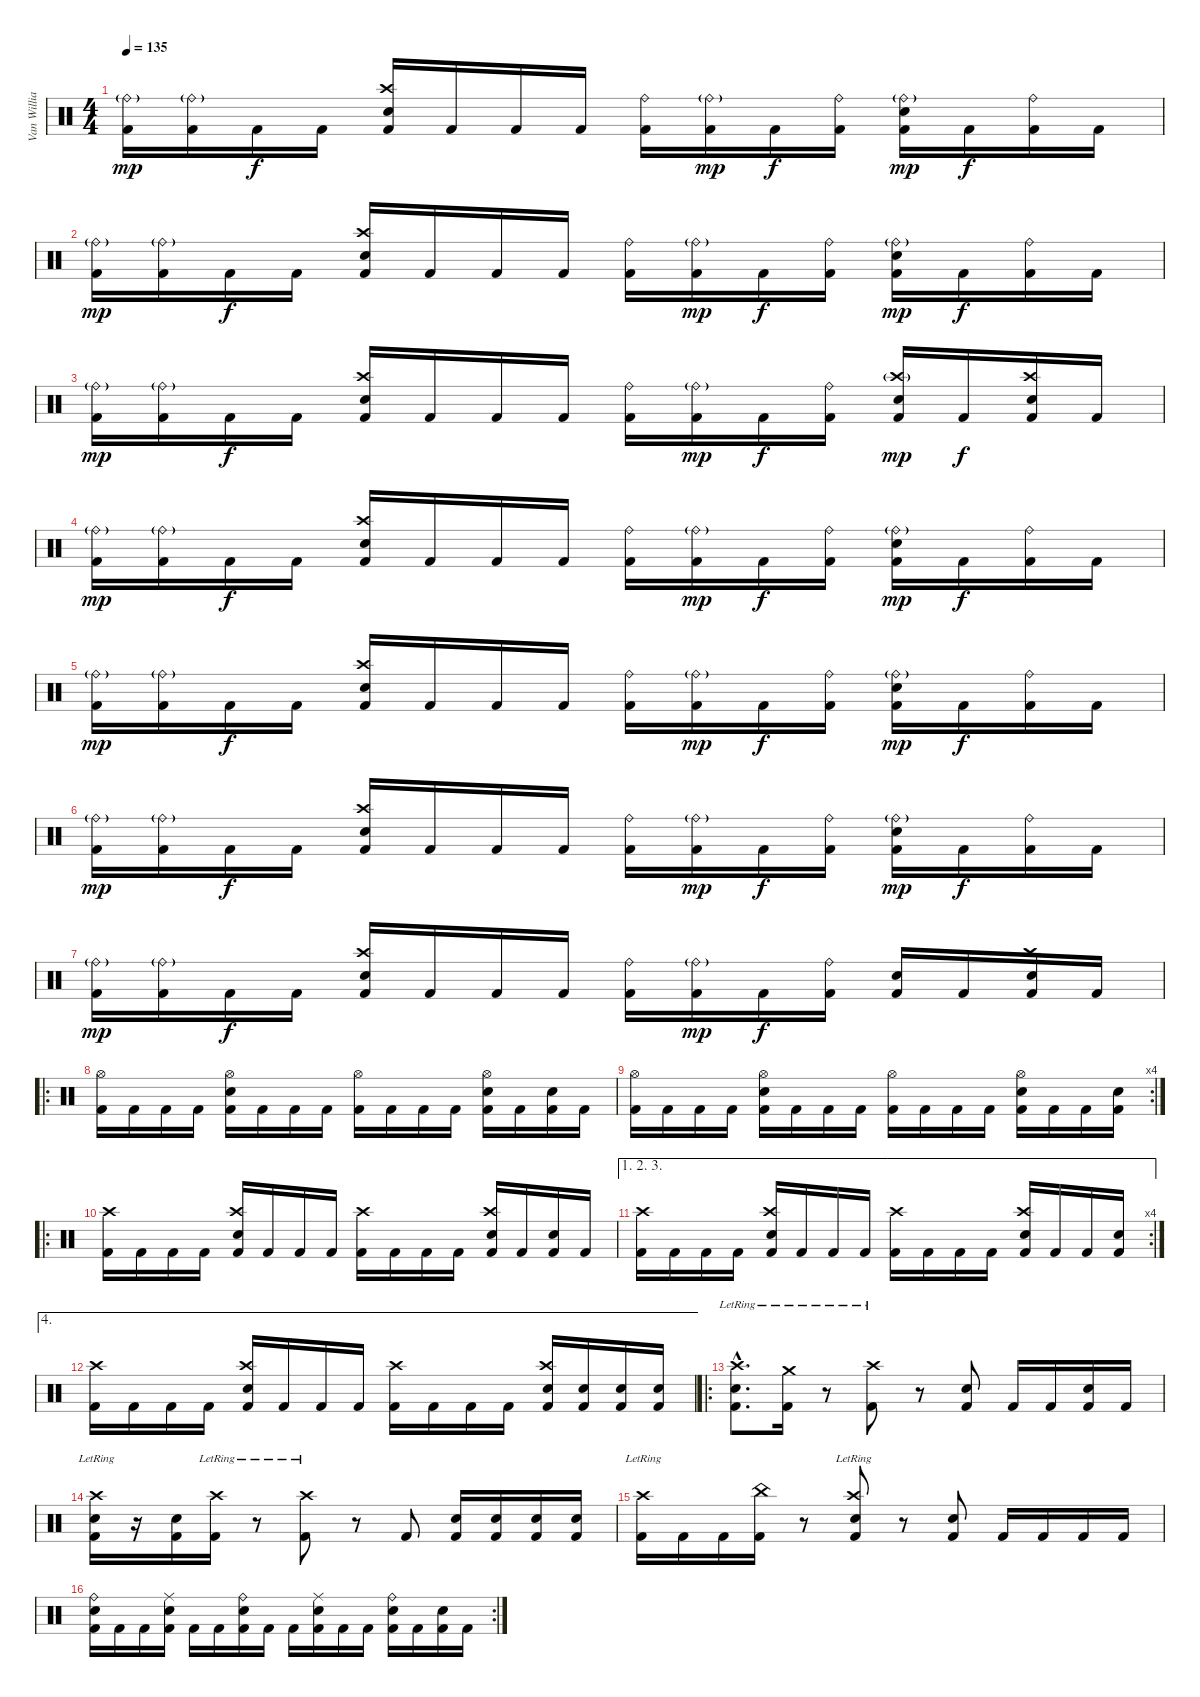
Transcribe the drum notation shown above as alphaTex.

\track ("Van Williams" "Van Willia") {instrument percussion}
\staff {score}
\articulation defaults
\ts (4 4)
\tempo 135
\clef neutral
\ks c
("Ride (bell)"{g} "Kick (hit) 2").16{dy mp} ("Ride (bell)"{g} "Kick (hit) 2").16 "Kick (hit) 2".16{dy f} "Kick (hit) 2".16 ("Crash high (hit)" "Kick (hit) 2" "Electric Snare (hit)").16 "Kick (hit) 2".16 "Kick (hit) 2".16 "Kick (hit) 2".16 ("Ride (bell)" "Kick (hit) 2").16 ("Ride (bell)"{g} "Kick (hit) 2").16{dy mp} "Kick (hit) 2".16{dy f} ("Ride (bell)" "Kick (hit) 2").16 ("Ride (bell)"{g} "Kick (hit) 2" "Electric Snare (hit)").16{dy mp} "Kick (hit) 2".16{dy f} ("Ride (bell)" "Kick (hit) 2").16 "Kick (hit) 2".16 |
("Ride (bell)"{g} "Kick (hit) 2").16{dy mp} ("Ride (bell)"{g} "Kick (hit) 2").16 "Kick (hit) 2".16{dy f} "Kick (hit) 2".16 ("Crash high (hit)" "Kick (hit) 2" "Electric Snare (hit)").16 "Kick (hit) 2".16 "Kick (hit) 2".16 "Kick (hit) 2".16 ("Ride (bell)" "Kick (hit) 2").16 ("Ride (bell)"{g} "Kick (hit) 2").16{dy mp} "Kick (hit) 2".16{dy f} ("Ride (bell)" "Kick (hit) 2").16 ("Ride (bell)"{g} "Kick (hit) 2" "Electric Snare (hit)").16{dy mp} "Kick (hit) 2".16{dy f} ("Ride (bell)" "Kick (hit) 2").16 "Kick (hit) 2".16 |
("Ride (bell)"{g} "Kick (hit) 2").16{dy mp} ("Ride (bell)"{g} "Kick (hit) 2").16 "Kick (hit) 2".16{dy f} "Kick (hit) 2".16 ("Crash high (hit)" "Kick (hit) 2" "Electric Snare (hit)").16 "Kick (hit) 2".16 "Kick (hit) 2".16 "Kick (hit) 2".16 ("Ride (bell)" "Kick (hit) 2").16 ("Ride (bell)"{g} "Kick (hit) 2").16{dy mp} "Kick (hit) 2".16{dy f} ("Ride (bell)" "Kick (hit) 2").16 ("Crash high (hit)"{g} "Kick (hit) 2" "Electric Snare (hit)").16{dy mp} "Kick (hit) 2".16{dy f} ("Crash high (hit)" "Kick (hit) 2" "Electric Snare (hit)").16 "Kick (hit) 2".16 |
("Ride (bell)"{g} "Kick (hit) 2").16{dy mp} ("Ride (bell)"{g} "Kick (hit) 2").16 "Kick (hit) 2".16{dy f} "Kick (hit) 2".16 ("Crash high (hit)" "Kick (hit) 2" "Electric Snare (hit)").16 "Kick (hit) 2".16 "Kick (hit) 2".16 "Kick (hit) 2".16 ("Ride (bell)" "Kick (hit) 2").16 ("Ride (bell)"{g} "Kick (hit) 2").16{dy mp} "Kick (hit) 2".16{dy f} ("Ride (bell)" "Kick (hit) 2").16 ("Ride (bell)"{g} "Kick (hit) 2" "Electric Snare (hit)").16{dy mp} "Kick (hit) 2".16{dy f} ("Ride (bell)" "Kick (hit) 2").16 "Kick (hit) 2".16 |
("Ride (bell)"{g} "Kick (hit) 2").16{dy mp} ("Ride (bell)"{g} "Kick (hit) 2").16 "Kick (hit) 2".16{dy f} "Kick (hit) 2".16 ("Crash high (hit)" "Kick (hit) 2" "Electric Snare (hit)").16 "Kick (hit) 2".16 "Kick (hit) 2".16 "Kick (hit) 2".16 ("Ride (bell)" "Kick (hit) 2").16 ("Ride (bell)"{g} "Kick (hit) 2").16{dy mp} "Kick (hit) 2".16{dy f} ("Ride (bell)" "Kick (hit) 2").16 ("Ride (bell)"{g} "Kick (hit) 2" "Electric Snare (hit)").16{dy mp} "Kick (hit) 2".16{dy f} ("Ride (bell)" "Kick (hit) 2").16 "Kick (hit) 2".16 |
("Ride (bell)"{g} "Kick (hit) 2").16{dy mp} ("Ride (bell)"{g} "Kick (hit) 2").16 "Kick (hit) 2".16{dy f} "Kick (hit) 2".16 ("Crash high (hit)" "Kick (hit) 2" "Electric Snare (hit)").16 "Kick (hit) 2".16 "Kick (hit) 2".16 "Kick (hit) 2".16 ("Ride (bell)" "Kick (hit) 2").16 ("Ride (bell)"{g} "Kick (hit) 2").16{dy mp} "Kick (hit) 2".16{dy f} ("Ride (bell)" "Kick (hit) 2").16 ("Ride (bell)"{g} "Kick (hit) 2" "Electric Snare (hit)").16{dy mp} "Kick (hit) 2".16{dy f} ("Ride (bell)" "Kick (hit) 2").16 "Kick (hit) 2".16 |
("Ride (bell)"{g} "Kick (hit) 2").16{dy mp} ("Ride (bell)"{g} "Kick (hit) 2").16 "Kick (hit) 2".16{dy f} "Kick (hit) 2".16 ("Crash high (hit)" "Kick (hit) 2" "Electric Snare (hit)").16 "Kick (hit) 2".16 "Kick (hit) 2".16 "Kick (hit) 2".16 ("Ride (bell)" "Kick (hit) 2").16 ("Ride (bell)"{g} "Kick (hit) 2").16{dy mp} "Kick (hit) 2".16{dy f} ("Ride (bell)" "Kick (hit) 2").16 ("Kick (hit) 2" "Electric Snare (hit)").16 "Kick (hit) 2".16 ("Crash high (hit)" "Kick (hit) 2" "Electric Snare (hit)").16 "Kick (hit) 2".16 |
\ro
("Hi-Hat (open)" "Kick (hit) 2").16 "Kick (hit) 2".16 "Kick (hit) 2".16 "Kick (hit) 2".16 ("Hi-Hat (open)" "Kick (hit) 2" "Electric Snare (hit)").16 "Kick (hit) 2".16 "Kick (hit) 2".16 "Kick (hit) 2".16 ("Hi-Hat (open)" "Kick (hit) 2").16 "Kick (hit) 2".16 "Kick (hit) 2".16 "Kick (hit) 2".16 ("Hi-Hat (open)" "Kick (hit) 2" "Electric Snare (hit)").16 "Kick (hit) 2".16 ("Kick (hit) 2" "Electric Snare (hit)").16 "Kick (hit) 2".16 |
\rc 4
("Hi-Hat (open)" "Kick (hit) 2").16 "Kick (hit) 2".16 "Kick (hit) 2".16 "Kick (hit) 2".16 ("Hi-Hat (open)" "Kick (hit) 2" "Electric Snare (hit)").16 "Kick (hit) 2".16 "Kick (hit) 2".16 "Kick (hit) 2".16 ("Hi-Hat (open)" "Kick (hit) 2").16 "Kick (hit) 2".16 "Kick (hit) 2".16 "Kick (hit) 2".16 ("Hi-Hat (open)" "Kick (hit) 2" "Electric Snare (hit)").16 "Kick (hit) 2".16 "Kick (hit) 2".16 ("Kick (hit) 2" "Electric Snare (hit)").16 |
\ro
("Crash high (hit)" "Kick (hit) 2").16 "Kick (hit) 2".16 "Kick (hit) 2".16 "Kick (hit) 2".16 ("Crash high (hit)" "Kick (hit) 2" "Electric Snare (hit)").16 "Kick (hit) 2".16 "Kick (hit) 2".16 "Kick (hit) 2".16 ("Crash high (hit)" "Kick (hit) 2").16 "Kick (hit) 2".16 "Kick (hit) 2".16 "Kick (hit) 2".16 ("Crash high (hit)" "Kick (hit) 2" "Electric Snare (hit)").16 "Kick (hit) 2".16 ("Kick (hit) 2" "Electric Snare (hit)").16 "Kick (hit) 2".16 |
\ae (1 2 3)
\rc 4
("Crash high (hit)" "Kick (hit) 2").16 "Kick (hit) 2".16 "Kick (hit) 2".16 "Kick (hit) 2".16 ("Crash high (hit)" "Kick (hit) 2" "Electric Snare (hit)").16 "Kick (hit) 2".16 "Kick (hit) 2".16 "Kick (hit) 2".16 ("Crash high (hit)" "Kick (hit) 2").16 "Kick (hit) 2".16 "Kick (hit) 2".16 "Kick (hit) 2".16 ("Crash high (hit)" "Kick (hit) 2" "Electric Snare (hit)").16 "Kick (hit) 2".16 "Kick (hit) 2".16 ("Kick (hit) 2" "Electric Snare (hit)").16 |
\ae 4
("Crash high (hit)" "Kick (hit) 2").16 "Kick (hit) 2".16 "Kick (hit) 2".16 "Kick (hit) 2".16 ("Crash high (hit)" "Kick (hit) 2" "Electric Snare (hit)").16 "Kick (hit) 2".16 "Kick (hit) 2".16 "Kick (hit) 2".16 ("Crash high (hit)" "Kick (hit) 2").16 "Kick (hit) 2".16 "Kick (hit) 2".16 "Kick (hit) 2".16 ("Crash high (hit)" "Kick (hit) 2" "Electric Snare (hit)").16 ("Kick (hit) 2" "Electric Snare (hit)").16 ("Kick (hit) 2" "Electric Snare (hit)").16 ("Kick (hit) 2" "Electric Snare (hit)").16 |
\ro
("Crash high (hit)"{lr} "Kick (hit) 2"{hac} "Electric Snare (hit)"{hac}).8{d} ("Crash medium (hit)"{lr} "Kick (hit) 2").16 r.8 ("Crash high (hit)"{lr} "Kick (hit) 2").8 r.8 ("Kick (hit) 2" "Electric Snare (hit)").8 "Kick (hit) 2".16 "Kick (hit) 2".16 ("Kick (hit) 2" "Electric Snare (hit)").16 "Kick (hit) 2".16 |
("Crash high (hit)"{lr} "Kick (hit) 2" "Electric Snare (hit)").16 r.16 ("Kick (hit) 2" "Electric Snare (hit)").16 ("Crash high (hit)"{lr} "Kick (hit) 2").16 r.8 ("Crash high (hit)"{lr} "Kick (hit) 2").8 r.8 "Kick (hit) 2".8 ("Kick (hit) 2" "Electric Snare (hit)").16 ("Kick (hit) 2" "Electric Snare (hit)").16 ("Kick (hit) 2" "Electric Snare (hit)").16 ("Kick (hit) 2" "Electric Snare (hit)").16 |
("Crash high (hit)"{lr} "Kick (hit) 2").16 "Kick (hit) 2".16 "Kick (hit) 2".16 ("China (hit)" "Kick (hit) 2").16 r.8 ("Crash high (hit)"{lr} "Kick (hit) 2" "Electric Snare (hit)").8 r.8 ("Kick (hit) 2" "Electric Snare (hit)").8 "Kick (hit) 2".16 "Kick (hit) 2".16 "Kick (hit) 2".16 "Kick (hit) 2".16 |
\rc 2
("Ride (bell)" "Kick (hit) 2" "Electric Snare (hit)").16 "Kick (hit) 2".16 "Kick (hit) 2".16 ("Ride (middle)" "Kick (hit) 2" "Electric Snare (hit)").16 "Kick (hit) 2".16 "Kick (hit) 2".16 ("Ride (bell)" "Kick (hit) 2" "Electric Snare (hit)").16 "Kick (hit) 2".16 "Kick (hit) 2".16 ("Ride (middle)" "Kick (hit) 2" "Electric Snare (hit)").16 "Kick (hit) 2".16 "Kick (hit) 2".16 ("Ride (bell)" "Kick (hit) 2" "Electric Snare (hit)").16 "Kick (hit) 2".16 ("Kick (hit) 2" "Electric Snare (hit)").16 "Kick (hit) 2".16
